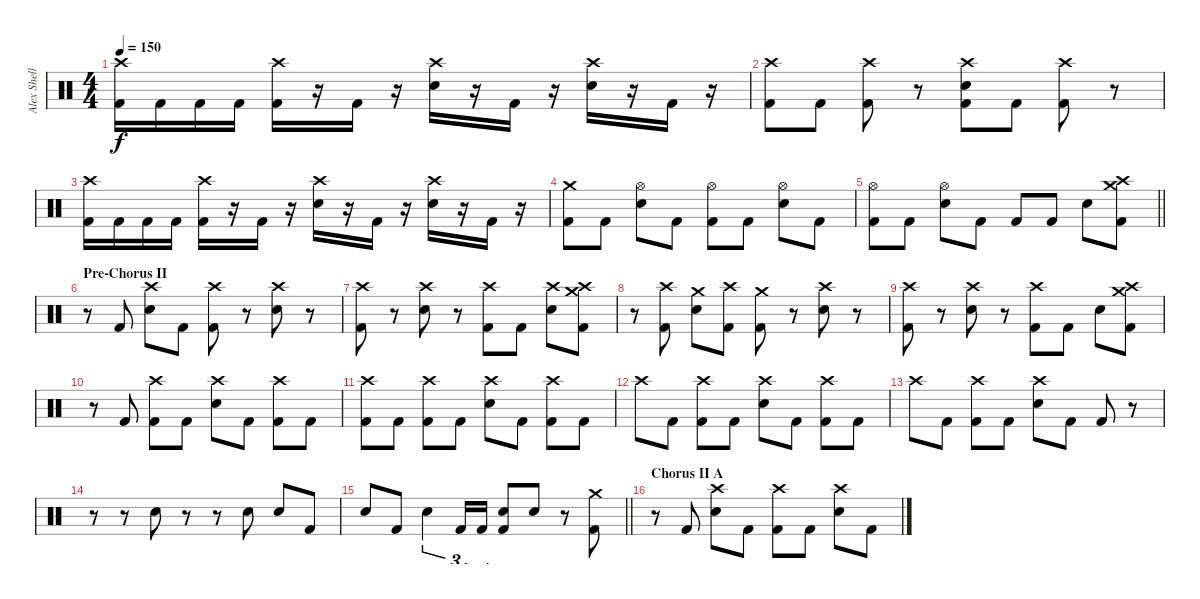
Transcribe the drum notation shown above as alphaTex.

\track ("Alex Shellnutt" "Alex Shell") {instrument percussion}
\staff {score}
\articulation defaults
\ts (4 4)
\tempo 150
\clef neutral
\ks c
("Crash high (hit)" "Kick (hit) 2").16{dy f} "Kick (hit) 2".16 "Kick (hit) 2".16 "Kick (hit) 2".16 ("Crash high (hit)" "Kick (hit) 2").16 r.16 "Kick (hit) 2".16 r.16 ("Crash high (hit)" "Snare (hit) 2").16 r.16 "Kick (hit) 2".16 r.16 ("Crash high (hit)" "Snare (hit) 2").16 r.16 "Kick (hit) 2".16 r.16 |
("Crash high (hit)" "Kick (hit) 2").8 "Kick (hit) 2".8 ("Crash high (hit)" "Kick (hit) 2").8 r.8 ("Crash high (hit)" "Snare (hit) 2" "Kick (hit) 2").8 "Kick (hit) 2".8 ("Crash high (hit)" "Kick (hit) 2").8 r.8 |
("Crash high (hit)" "Kick (hit) 2").16 "Kick (hit) 2".16 "Kick (hit) 2".16 "Kick (hit) 2".16 ("Crash high (hit)" "Kick (hit) 2").16 r.16 "Kick (hit) 2".16 r.16 ("Crash high (hit)" "Snare (hit) 2").16 r.16 "Kick (hit) 2".16 r.16 ("Crash high (hit)" "Snare (hit) 2").16 r.16 "Kick (hit) 2".16 r.16 |
("Crash medium (hit)" "Kick (hit) 2").8 "Kick (hit) 2".8 ("Hi-Hat (open)" "Snare (hit) 2").8 "Kick (hit) 2".8 ("Hi-Hat (open)" "Kick (hit) 2").8 "Kick (hit) 2".8 ("Hi-Hat (open)" "Snare (hit) 2").8 "Kick (hit) 2".8 |
\barLineRight lightlight
("Hi-Hat (open)" "Kick (hit) 2").8 "Kick (hit) 2".8 ("Hi-Hat (open)" "Snare (hit) 2").8 "Kick (hit) 2".8 "Kick (hit) 2".8 "Kick (hit) 2".8 "Snare (hit) 2".8 ("Crash medium (hit)" "Crash high (hit)" "Kick (hit) 2").8 |
\section ("" "Pre-Chorus II")
r.8 "Kick (hit) 2".8 ("Crash high (hit)" "Snare (hit) 2").8 "Kick (hit) 2".8 ("Crash high (hit)" "Kick (hit) 2").8 r.8 ("Crash high (hit)" "Snare (hit) 2").8 r.8 |
("Crash high (hit)" "Kick (hit) 2").8 r.8 ("Crash high (hit)" "Snare (hit) 2").8 r.8 ("Crash high (hit)" "Kick (hit) 2").8 "Kick (hit) 2".8 ("Crash high (hit)" "Snare (hit) 2").8 ("Crash medium (hit)" "Crash high (hit)" "Kick (hit) 2").8 |
r.8 ("Crash high (hit)" "Kick (hit) 2").8 ("Crash medium (hit)" "Snare (hit) 2").8 ("Crash high (hit)" "Kick (hit) 2").8 ("Crash medium (hit)" "Kick (hit) 2").8 r.8 ("Crash high (hit)" "Snare (hit) 2").8 r.8 |
("Crash high (hit)" "Kick (hit) 2").8 r.8 ("Crash high (hit)" "Snare (hit) 2").8 r.8 ("Crash high (hit)" "Kick (hit) 2").8 "Kick (hit) 2".8 "Snare (hit) 2".8 ("Crash medium (hit)" "Crash high (hit)" "Kick (hit) 2").8 |
r.8 "Kick (hit) 2".8 ("Crash high (hit)" "Kick (hit) 2").8 "Kick (hit) 2".8 ("Crash high (hit)" "Snare (hit) 2").8 "Kick (hit) 2".8 ("Crash high (hit)" "Kick (hit) 2").8 "Kick (hit) 2".8 |
("Crash high (hit)" "Kick (hit) 2").8 "Kick (hit) 2".8 ("Crash high (hit)" "Kick (hit) 2").8 "Kick (hit) 2".8 ("Crash high (hit)" "Snare (hit) 2").8 "Kick (hit) 2".8 ("Crash high (hit)" "Kick (hit) 2").8 "Kick (hit) 2".8 |
"Crash high (hit)".8 "Kick (hit) 2".8 ("Crash high (hit)" "Kick (hit) 2").8 "Kick (hit) 2".8 ("Crash high (hit)" "Snare (hit) 2").8 "Kick (hit) 2".8 ("Crash high (hit)" "Kick (hit) 2").8 "Kick (hit) 2".8 |
"Crash high (hit)".8 "Kick (hit) 2".8 ("Crash high (hit)" "Kick (hit) 2").8 "Kick (hit) 2".8 ("Crash high (hit)" "Snare (hit) 2").8 "Kick (hit) 2".8 "Kick (hit) 2".8 r.8 |
r.8 r.8 "Snare (hit) 2".8 r.8 r.8 "Snare (hit) 2".8 "Snare (hit) 2".8 "Kick (hit) 2".8 |
\barLineRight lightlight "Snare (hit) 2".8 "Kick (hit) 2".8 "Snare (hit) 2".4{tu (3 2)} "Kick (hit) 2".16{tu (3 2)} "Kick (hit) 2".16{tu (3 2)}
("Snare (hit) 2" "Kick (hit) 2").8 "Snare (hit) 2".8 r.8 ("Crash medium (hit)" "Kick (hit) 2").8 |
\section ("" "Chorus II A")
r.8 "Kick (hit) 2".8 ("Crash high (hit)" "Snare (hit) 2").8 "Kick (hit) 2".8 ("Crash high (hit)" "Kick (hit) 2").8 "Kick (hit) 2".8 ("Crash high (hit)" "Snare (hit) 2").8 "Kick (hit) 2".8
